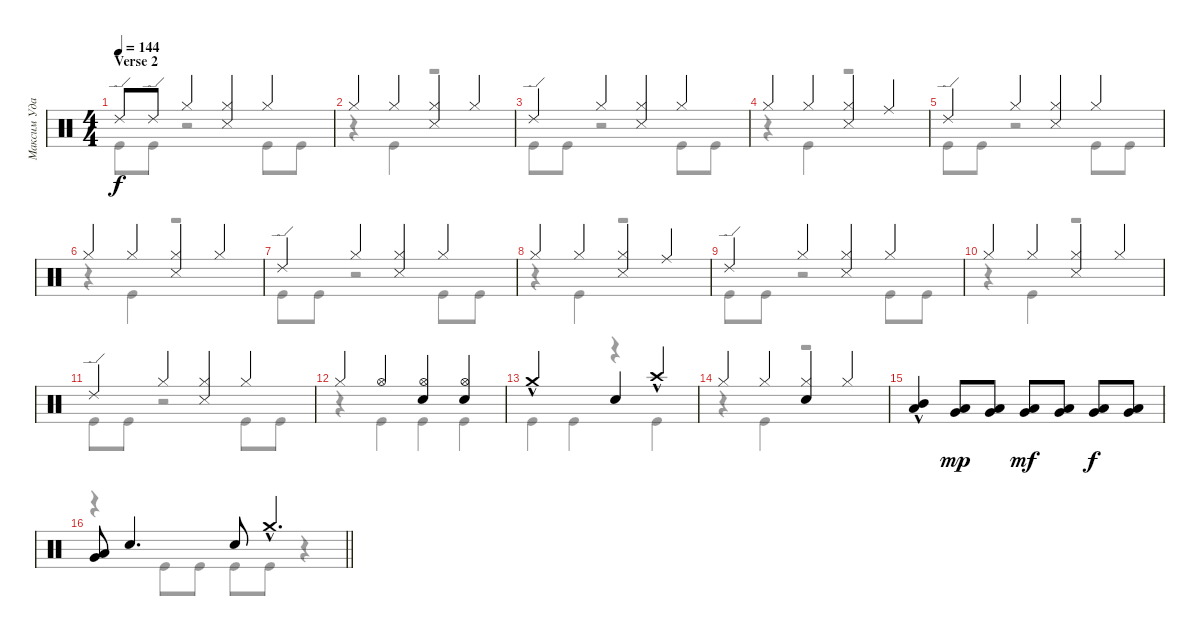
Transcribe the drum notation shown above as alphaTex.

\track ("Максим Удалов" "Максим Уда") {instrument percussion}
\staff {score}
\articulation defaults
\voice
\ts (4 4)
\section ("" "Verse 2")
\tempo 144
\clef neutral
\ks c "Ride (edge) 2".8{dy f} "Ride (edge) 2".8 "Hi-Hat (closed)".4
("Hi-Hat (closed)" "Snare (side stick) 3").4 "Hi-Hat (closed)".4 |
"Hi-Hat (closed)".4 "Hi-Hat (closed)".4 ("Hi-Hat (closed)" "Snare (side stick) 3").4 "Hi-Hat (closed)".4 |
"Ride (edge) 2".4 "Hi-Hat (closed)".4 ("Hi-Hat (closed)" "Snare (side stick) 3").4 "Hi-Hat (closed)".4 |
"Hi-Hat (closed)".4 "Hi-Hat (closed)".4 ("Hi-Hat (closed)" "Snare (side stick) 3").4 "Ride (middle)".4 |
"Ride (edge) 2".4 "Hi-Hat (closed)".4 ("Hi-Hat (closed)" "Snare (side stick) 3").4 "Hi-Hat (closed)".4 |
"Hi-Hat (closed)".4 "Hi-Hat (closed)".4 ("Hi-Hat (closed)" "Snare (side stick) 3").4 "Hi-Hat (closed)".4 |
"Ride (edge) 2".4 "Hi-Hat (closed)".4 ("Hi-Hat (closed)" "Snare (side stick) 3").4 "Hi-Hat (closed)".4 |
"Hi-Hat (closed)".4 "Hi-Hat (closed)".4 ("Hi-Hat (closed)" "Snare (side stick) 3").4 "Ride (middle)".4 |
"Ride (edge) 2".4 "Hi-Hat (closed)".4 ("Hi-Hat (closed)" "Snare (side stick) 3").4 "Hi-Hat (closed)".4 |
"Hi-Hat (closed)".4 "Hi-Hat (closed)".4 ("Hi-Hat (closed)" "Snare (side stick) 3").4 "Hi-Hat (closed)".4 |
"Ride (edge) 2".4 "Hi-Hat (closed)".4 ("Hi-Hat (closed)" "Snare (side stick) 3").4 "Hi-Hat (closed)".4 |
"Hi-Hat (closed)".4 "Hi-Hat (open)".4 ("Hi-Hat (open)" "Snare (hit) 2").4 ("Hi-Hat (open)" "Snare (hit) 2").4 |
"Crash medium (hit)"{hac}.2 "Snare (hit) 2".4 "Crash high (hit)"{hac}.4 |
"Hi-Hat (closed)".4 "Hi-Hat (closed)".4 ("Hi-Hat (closed)" "Snare (hit) 2").4 "Hi-Hat (closed)".4 |
("Low Tom (hit)"{hac} "Mid Tom (hit)"{hac}).4 ("Low Tom (hit)" "Very Low Tom (hit)").8{dy mp} ("Low Tom (hit)" "Very Low Tom (hit)").8 ("Low Tom (hit)" "Very Low Tom (hit)").8{dy mf} ("Low Tom (hit)" "Very Low Tom (hit)").8 ("Low Tom (hit)" "Very Low Tom (hit)").8{dy f} ("Low Tom (hit)" "Very Low Tom (hit)").8 |
\barLineRight lightlight
("Low Tom (hit)" "Very Low Tom (hit)").8 "Snare (hit) 2".4{d} "Snare (hit) 2".8 "Crash medium (hit)"{hac}.4{d}
\voice
\clef neutral
\ottava regular
\simile none
\ks c "Kick (hit)".8{dy f} "Kick (hit)".8
r.2 "Kick (hit)".8 "Kick (hit)".8 |
r.4 "Kick (hit)".4 r.2 |
"Kick (hit)".8 "Kick (hit)".8 r.2 "Kick (hit)".8 "Kick (hit)".8 |
r.4 "Kick (hit)".4 r.2 |
"Kick (hit)".8 "Kick (hit)".8 r.2 "Kick (hit)".8 "Kick (hit)".8 |
r.4 "Kick (hit)".4 r.2 |
"Kick (hit)".8 "Kick (hit)".8 r.2 "Kick (hit)".8 "Kick (hit)".8 |
r.4 "Kick (hit)".4 r.2 |
"Kick (hit)".8 "Kick (hit)".8 r.2 "Kick (hit)".8 "Kick (hit)".8 |
r.4 "Kick (hit)".4 r.2 |
"Kick (hit)".8 "Kick (hit)".8 r.2 "Kick (hit)".8 "Kick (hit)".8 |
r.4 "Kick (hit)".4 "Kick (hit)".4 "Kick (hit)".4 |
"Kick (hit)".4 "Kick (hit)".4 r.4 "Kick (hit)".4 |
r.4 "Kick (hit)".4 r.2 |
|
\barLineRight lightlight
r.4 "Kick (hit)".8 "Kick (hit)".8 "Kick (hit)".8 "Kick (hit)".8 r.4
